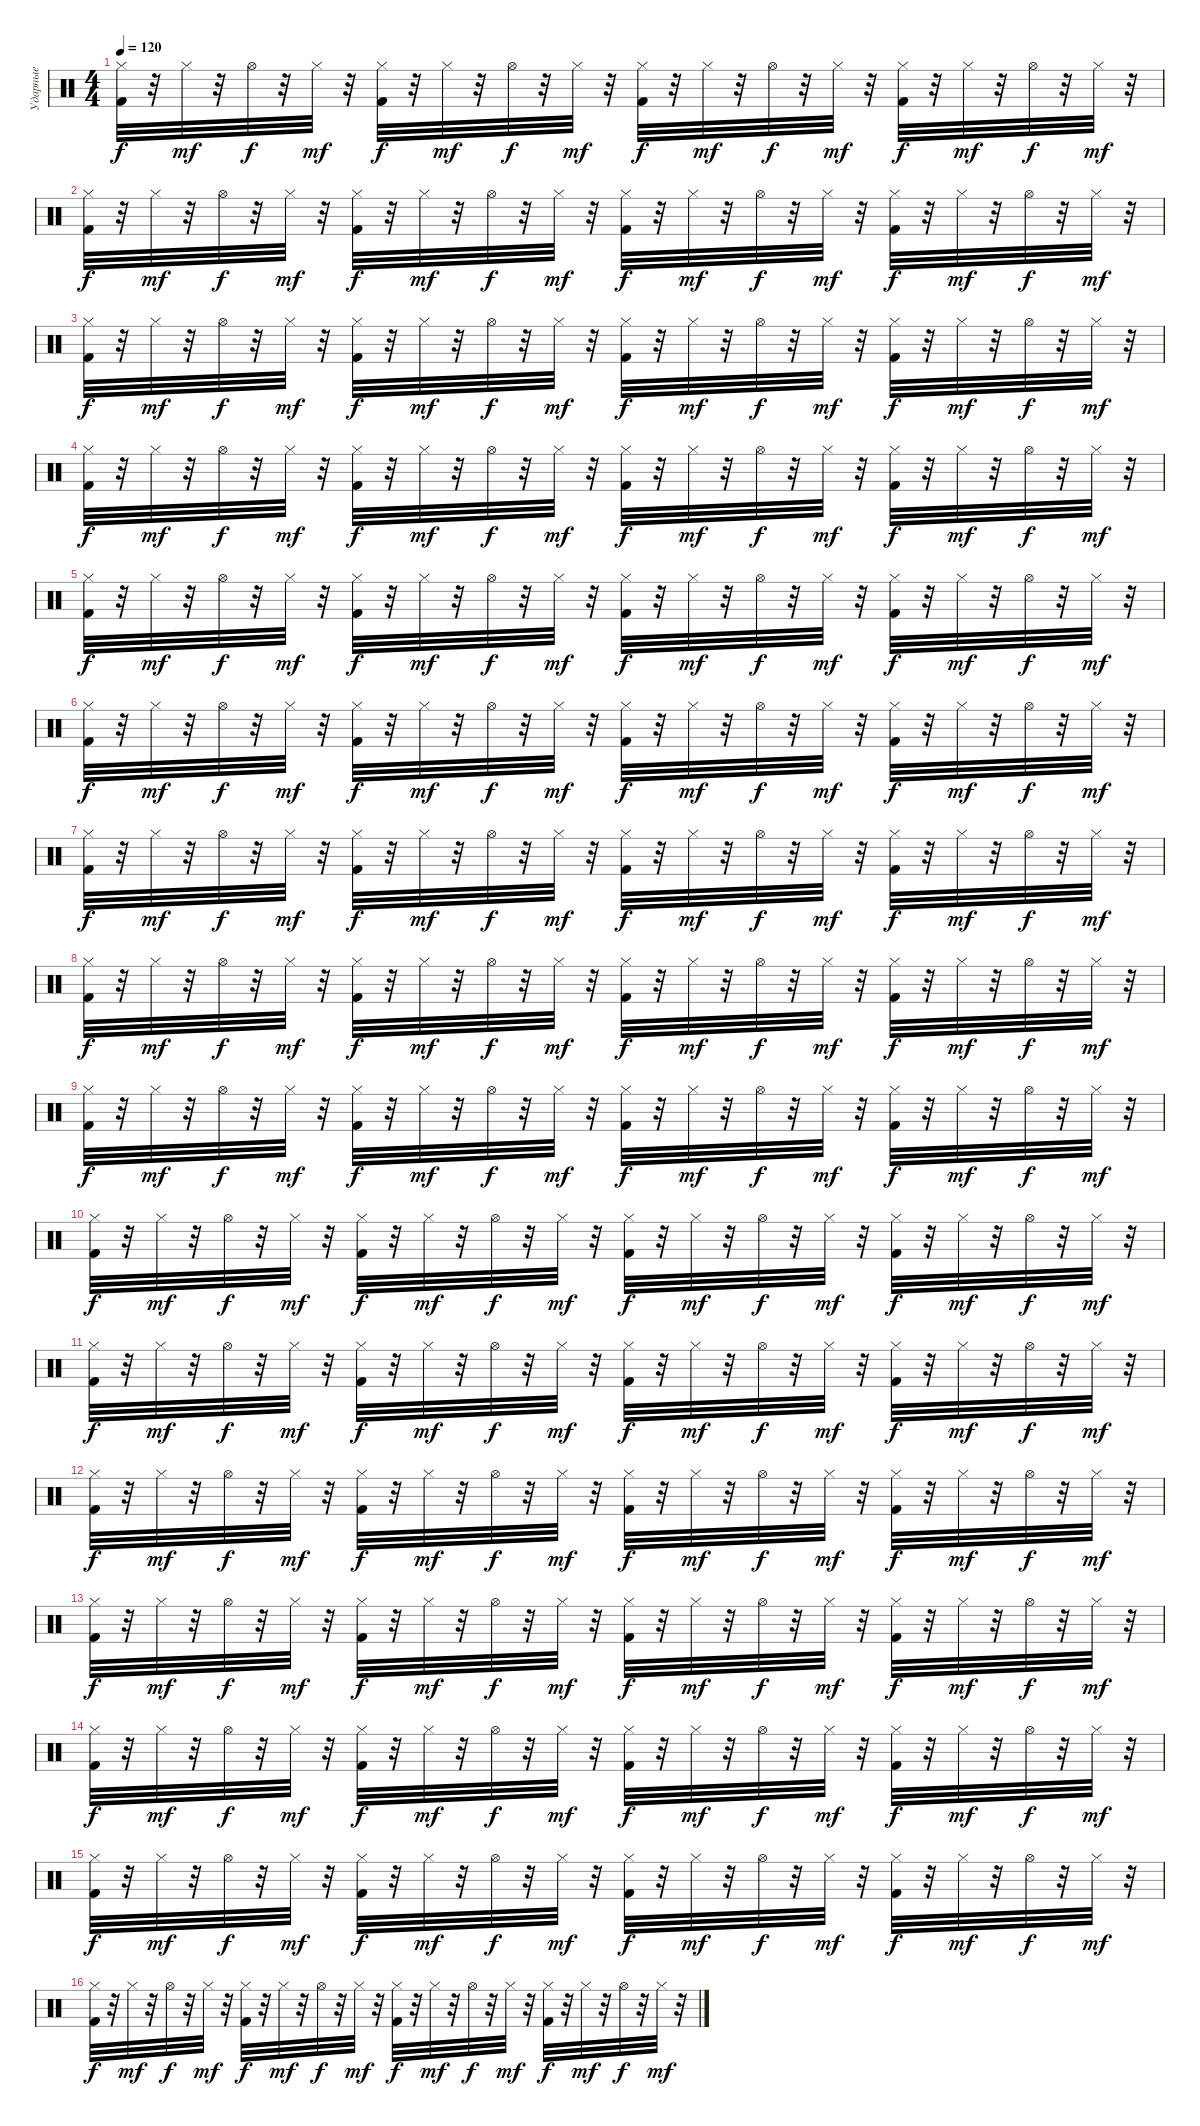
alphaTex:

\track ("Ударные" "Ударные") {instrument percussion}
\staff {score}
\articulation defaults
\ts (4 4)
\tempo 120
\clef neutral
\ks c
("Hi-Hat (closed)" "Kick (hit) 2").32{dy f} r.32 "Hi-Hat (closed)".32{dy mf} r.32 "Hi-Hat (open)".32{dy f} r.32 "Hi-Hat (closed)".32{dy mf} r.32 ("Hi-Hat (closed)" "Kick (hit) 2").32{dy f} r.32 "Hi-Hat (closed)".32{dy mf} r.32 "Hi-Hat (open)".32{dy f} r.32 "Hi-Hat (closed)".32{dy mf} r.32 ("Hi-Hat (closed)" "Kick (hit) 2").32{dy f} r.32 "Hi-Hat (closed)".32{dy mf} r.32 "Hi-Hat (open)".32{dy f} r.32 "Hi-Hat (closed)".32{dy mf} r.32 ("Hi-Hat (closed)" "Kick (hit) 2").32{dy f} r.32 "Hi-Hat (closed)".32{dy mf} r.32 "Hi-Hat (open)".32{dy f} r.32 "Hi-Hat (closed)".32{dy mf} r.32 |
("Hi-Hat (closed)" "Kick (hit) 2").32{dy f} r.32 "Hi-Hat (closed)".32{dy mf} r.32 "Hi-Hat (open)".32{dy f} r.32 "Hi-Hat (closed)".32{dy mf} r.32 ("Hi-Hat (closed)" "Kick (hit) 2").32{dy f} r.32 "Hi-Hat (closed)".32{dy mf} r.32 "Hi-Hat (open)".32{dy f} r.32 "Hi-Hat (closed)".32{dy mf} r.32 ("Hi-Hat (closed)" "Kick (hit) 2").32{dy f} r.32 "Hi-Hat (closed)".32{dy mf} r.32 "Hi-Hat (open)".32{dy f} r.32 "Hi-Hat (closed)".32{dy mf} r.32 ("Hi-Hat (closed)" "Kick (hit) 2").32{dy f} r.32 "Hi-Hat (closed)".32{dy mf} r.32 "Hi-Hat (open)".32{dy f} r.32 "Hi-Hat (closed)".32{dy mf} r.32 |
("Hi-Hat (closed)" "Kick (hit) 2").32{dy f} r.32 "Hi-Hat (closed)".32{dy mf} r.32 "Hi-Hat (open)".32{dy f} r.32 "Hi-Hat (closed)".32{dy mf} r.32 ("Hi-Hat (closed)" "Kick (hit) 2").32{dy f} r.32 "Hi-Hat (closed)".32{dy mf} r.32 "Hi-Hat (open)".32{dy f} r.32 "Hi-Hat (closed)".32{dy mf} r.32 ("Hi-Hat (closed)" "Kick (hit) 2").32{dy f} r.32 "Hi-Hat (closed)".32{dy mf} r.32 "Hi-Hat (open)".32{dy f} r.32 "Hi-Hat (closed)".32{dy mf} r.32 ("Hi-Hat (closed)" "Kick (hit) 2").32{dy f} r.32 "Hi-Hat (closed)".32{dy mf} r.32 "Hi-Hat (open)".32{dy f} r.32 "Hi-Hat (closed)".32{dy mf} r.32 |
("Hi-Hat (closed)" "Kick (hit) 2").32{dy f} r.32 "Hi-Hat (closed)".32{dy mf} r.32 "Hi-Hat (open)".32{dy f} r.32 "Hi-Hat (closed)".32{dy mf} r.32 ("Hi-Hat (closed)" "Kick (hit) 2").32{dy f} r.32 "Hi-Hat (closed)".32{dy mf} r.32 "Hi-Hat (open)".32{dy f} r.32 "Hi-Hat (closed)".32{dy mf} r.32 ("Hi-Hat (closed)" "Kick (hit) 2").32{dy f} r.32 "Hi-Hat (closed)".32{dy mf} r.32 "Hi-Hat (open)".32{dy f} r.32 "Hi-Hat (closed)".32{dy mf} r.32 ("Hi-Hat (closed)" "Kick (hit) 2").32{dy f} r.32 "Hi-Hat (closed)".32{dy mf} r.32 "Hi-Hat (open)".32{dy f} r.32 "Hi-Hat (closed)".32{dy mf} r.32 |
("Hi-Hat (closed)" "Kick (hit) 2").32{dy f} r.32 "Hi-Hat (closed)".32{dy mf} r.32 "Hi-Hat (open)".32{dy f} r.32 "Hi-Hat (closed)".32{dy mf} r.32 ("Hi-Hat (closed)" "Kick (hit) 2").32{dy f} r.32 "Hi-Hat (closed)".32{dy mf} r.32 "Hi-Hat (open)".32{dy f} r.32 "Hi-Hat (closed)".32{dy mf} r.32 ("Hi-Hat (closed)" "Kick (hit) 2").32{dy f} r.32 "Hi-Hat (closed)".32{dy mf} r.32 "Hi-Hat (open)".32{dy f} r.32 "Hi-Hat (closed)".32{dy mf} r.32 ("Hi-Hat (closed)" "Kick (hit) 2").32{dy f} r.32 "Hi-Hat (closed)".32{dy mf} r.32 "Hi-Hat (open)".32{dy f} r.32 "Hi-Hat (closed)".32{dy mf} r.32 |
("Hi-Hat (closed)" "Kick (hit) 2").32{dy f} r.32 "Hi-Hat (closed)".32{dy mf} r.32 "Hi-Hat (open)".32{dy f} r.32 "Hi-Hat (closed)".32{dy mf} r.32 ("Hi-Hat (closed)" "Kick (hit) 2").32{dy f} r.32 "Hi-Hat (closed)".32{dy mf} r.32 "Hi-Hat (open)".32{dy f} r.32 "Hi-Hat (closed)".32{dy mf} r.32 ("Hi-Hat (closed)" "Kick (hit) 2").32{dy f} r.32 "Hi-Hat (closed)".32{dy mf} r.32 "Hi-Hat (open)".32{dy f} r.32 "Hi-Hat (closed)".32{dy mf} r.32 ("Hi-Hat (closed)" "Kick (hit) 2").32{dy f} r.32 "Hi-Hat (closed)".32{dy mf} r.32 "Hi-Hat (open)".32{dy f} r.32 "Hi-Hat (closed)".32{dy mf} r.32 |
("Hi-Hat (closed)" "Kick (hit) 2").32{dy f} r.32 "Hi-Hat (closed)".32{dy mf} r.32 "Hi-Hat (open)".32{dy f} r.32 "Hi-Hat (closed)".32{dy mf} r.32 ("Hi-Hat (closed)" "Kick (hit) 2").32{dy f} r.32 "Hi-Hat (closed)".32{dy mf} r.32 "Hi-Hat (open)".32{dy f} r.32 "Hi-Hat (closed)".32{dy mf} r.32 ("Hi-Hat (closed)" "Kick (hit) 2").32{dy f} r.32 "Hi-Hat (closed)".32{dy mf} r.32 "Hi-Hat (open)".32{dy f} r.32 "Hi-Hat (closed)".32{dy mf} r.32 ("Hi-Hat (closed)" "Kick (hit) 2").32{dy f} r.32 "Hi-Hat (closed)".32{dy mf} r.32 "Hi-Hat (open)".32{dy f} r.32 "Hi-Hat (closed)".32{dy mf} r.32 |
("Hi-Hat (closed)" "Kick (hit) 2").32{dy f} r.32 "Hi-Hat (closed)".32{dy mf} r.32 "Hi-Hat (open)".32{dy f} r.32 "Hi-Hat (closed)".32{dy mf} r.32 ("Hi-Hat (closed)" "Kick (hit) 2").32{dy f} r.32 "Hi-Hat (closed)".32{dy mf} r.32 "Hi-Hat (open)".32{dy f} r.32 "Hi-Hat (closed)".32{dy mf} r.32 ("Hi-Hat (closed)" "Kick (hit) 2").32{dy f} r.32 "Hi-Hat (closed)".32{dy mf} r.32 "Hi-Hat (open)".32{dy f} r.32 "Hi-Hat (closed)".32{dy mf} r.32 ("Hi-Hat (closed)" "Kick (hit) 2").32{dy f} r.32 "Hi-Hat (closed)".32{dy mf} r.32 "Hi-Hat (open)".32{dy f} r.32 "Hi-Hat (closed)".32{dy mf} r.32 |
("Hi-Hat (closed)" "Kick (hit) 2").32{dy f} r.32 "Hi-Hat (closed)".32{dy mf} r.32 "Hi-Hat (open)".32{dy f} r.32 "Hi-Hat (closed)".32{dy mf} r.32 ("Hi-Hat (closed)" "Kick (hit) 2").32{dy f} r.32 "Hi-Hat (closed)".32{dy mf} r.32 "Hi-Hat (open)".32{dy f} r.32 "Hi-Hat (closed)".32{dy mf} r.32 ("Hi-Hat (closed)" "Kick (hit) 2").32{dy f} r.32 "Hi-Hat (closed)".32{dy mf} r.32 "Hi-Hat (open)".32{dy f} r.32 "Hi-Hat (closed)".32{dy mf} r.32 ("Hi-Hat (closed)" "Kick (hit) 2").32{dy f} r.32 "Hi-Hat (closed)".32{dy mf} r.32 "Hi-Hat (open)".32{dy f} r.32 "Hi-Hat (closed)".32{dy mf} r.32 |
("Hi-Hat (closed)" "Kick (hit) 2").32{dy f} r.32 "Hi-Hat (closed)".32{dy mf} r.32 "Hi-Hat (open)".32{dy f} r.32 "Hi-Hat (closed)".32{dy mf} r.32 ("Hi-Hat (closed)" "Kick (hit) 2").32{dy f} r.32 "Hi-Hat (closed)".32{dy mf} r.32 "Hi-Hat (open)".32{dy f} r.32 "Hi-Hat (closed)".32{dy mf} r.32 ("Hi-Hat (closed)" "Kick (hit) 2").32{dy f} r.32 "Hi-Hat (closed)".32{dy mf} r.32 "Hi-Hat (open)".32{dy f} r.32 "Hi-Hat (closed)".32{dy mf} r.32 ("Hi-Hat (closed)" "Kick (hit) 2").32{dy f} r.32 "Hi-Hat (closed)".32{dy mf} r.32 "Hi-Hat (open)".32{dy f} r.32 "Hi-Hat (closed)".32{dy mf} r.32 |
("Hi-Hat (closed)" "Kick (hit) 2").32{dy f} r.32 "Hi-Hat (closed)".32{dy mf} r.32 "Hi-Hat (open)".32{dy f} r.32 "Hi-Hat (closed)".32{dy mf} r.32 ("Hi-Hat (closed)" "Kick (hit) 2").32{dy f} r.32 "Hi-Hat (closed)".32{dy mf} r.32 "Hi-Hat (open)".32{dy f} r.32 "Hi-Hat (closed)".32{dy mf} r.32 ("Hi-Hat (closed)" "Kick (hit) 2").32{dy f} r.32 "Hi-Hat (closed)".32{dy mf} r.32 "Hi-Hat (open)".32{dy f} r.32 "Hi-Hat (closed)".32{dy mf} r.32 ("Hi-Hat (closed)" "Kick (hit) 2").32{dy f} r.32 "Hi-Hat (closed)".32{dy mf} r.32 "Hi-Hat (open)".32{dy f} r.32 "Hi-Hat (closed)".32{dy mf} r.32 |
("Hi-Hat (closed)" "Kick (hit) 2").32{dy f} r.32 "Hi-Hat (closed)".32{dy mf} r.32 "Hi-Hat (open)".32{dy f} r.32 "Hi-Hat (closed)".32{dy mf} r.32 ("Hi-Hat (closed)" "Kick (hit) 2").32{dy f} r.32 "Hi-Hat (closed)".32{dy mf} r.32 "Hi-Hat (open)".32{dy f} r.32 "Hi-Hat (closed)".32{dy mf} r.32 ("Hi-Hat (closed)" "Kick (hit) 2").32{dy f} r.32 "Hi-Hat (closed)".32{dy mf} r.32 "Hi-Hat (open)".32{dy f} r.32 "Hi-Hat (closed)".32{dy mf} r.32 ("Hi-Hat (closed)" "Kick (hit) 2").32{dy f} r.32 "Hi-Hat (closed)".32{dy mf} r.32 "Hi-Hat (open)".32{dy f} r.32 "Hi-Hat (closed)".32{dy mf} r.32 |
("Hi-Hat (closed)" "Kick (hit) 2").32{dy f} r.32 "Hi-Hat (closed)".32{dy mf} r.32 "Hi-Hat (open)".32{dy f} r.32 "Hi-Hat (closed)".32{dy mf} r.32 ("Hi-Hat (closed)" "Kick (hit) 2").32{dy f} r.32 "Hi-Hat (closed)".32{dy mf} r.32 "Hi-Hat (open)".32{dy f} r.32 "Hi-Hat (closed)".32{dy mf} r.32 ("Hi-Hat (closed)" "Kick (hit) 2").32{dy f} r.32 "Hi-Hat (closed)".32{dy mf} r.32 "Hi-Hat (open)".32{dy f} r.32 "Hi-Hat (closed)".32{dy mf} r.32 ("Hi-Hat (closed)" "Kick (hit) 2").32{dy f} r.32 "Hi-Hat (closed)".32{dy mf} r.32 "Hi-Hat (open)".32{dy f} r.32 "Hi-Hat (closed)".32{dy mf} r.32 |
("Hi-Hat (closed)" "Kick (hit) 2").32{dy f} r.32 "Hi-Hat (closed)".32{dy mf} r.32 "Hi-Hat (open)".32{dy f} r.32 "Hi-Hat (closed)".32{dy mf} r.32 ("Hi-Hat (closed)" "Kick (hit) 2").32{dy f} r.32 "Hi-Hat (closed)".32{dy mf} r.32 "Hi-Hat (open)".32{dy f} r.32 "Hi-Hat (closed)".32{dy mf} r.32 ("Hi-Hat (closed)" "Kick (hit) 2").32{dy f} r.32 "Hi-Hat (closed)".32{dy mf} r.32 "Hi-Hat (open)".32{dy f} r.32 "Hi-Hat (closed)".32{dy mf} r.32 ("Hi-Hat (closed)" "Kick (hit) 2").32{dy f} r.32 "Hi-Hat (closed)".32{dy mf} r.32 "Hi-Hat (open)".32{dy f} r.32 "Hi-Hat (closed)".32{dy mf} r.32 |
("Hi-Hat (closed)" "Kick (hit) 2").32{dy f} r.32 "Hi-Hat (closed)".32{dy mf} r.32 "Hi-Hat (open)".32{dy f} r.32 "Hi-Hat (closed)".32{dy mf} r.32 ("Hi-Hat (closed)" "Kick (hit) 2").32{dy f} r.32 "Hi-Hat (closed)".32{dy mf} r.32 "Hi-Hat (open)".32{dy f} r.32 "Hi-Hat (closed)".32{dy mf} r.32 ("Hi-Hat (closed)" "Kick (hit) 2").32{dy f} r.32 "Hi-Hat (closed)".32{dy mf} r.32 "Hi-Hat (open)".32{dy f} r.32 "Hi-Hat (closed)".32{dy mf} r.32 ("Hi-Hat (closed)" "Kick (hit) 2").32{dy f} r.32 "Hi-Hat (closed)".32{dy mf} r.32 "Hi-Hat (open)".32{dy f} r.32 "Hi-Hat (closed)".32{dy mf} r.32 |
("Hi-Hat (closed)" "Kick (hit) 2").32{dy f} r.32 "Hi-Hat (closed)".32{dy mf} r.32 "Hi-Hat (open)".32{dy f} r.32 "Hi-Hat (closed)".32{dy mf} r.32 ("Hi-Hat (closed)" "Kick (hit) 2").32{dy f} r.32 "Hi-Hat (closed)".32{dy mf} r.32 "Hi-Hat (open)".32{dy f} r.32 "Hi-Hat (closed)".32{dy mf} r.32 ("Hi-Hat (closed)" "Kick (hit) 2").32{dy f} r.32 "Hi-Hat (closed)".32{dy mf} r.32 "Hi-Hat (open)".32{dy f} r.32 "Hi-Hat (closed)".32{dy mf} r.32 ("Hi-Hat (closed)" "Kick (hit) 2").32{dy f} r.32 "Hi-Hat (closed)".32{dy mf} r.32 "Hi-Hat (open)".32{dy f} r.32 "Hi-Hat (closed)".32{dy mf} r.32
